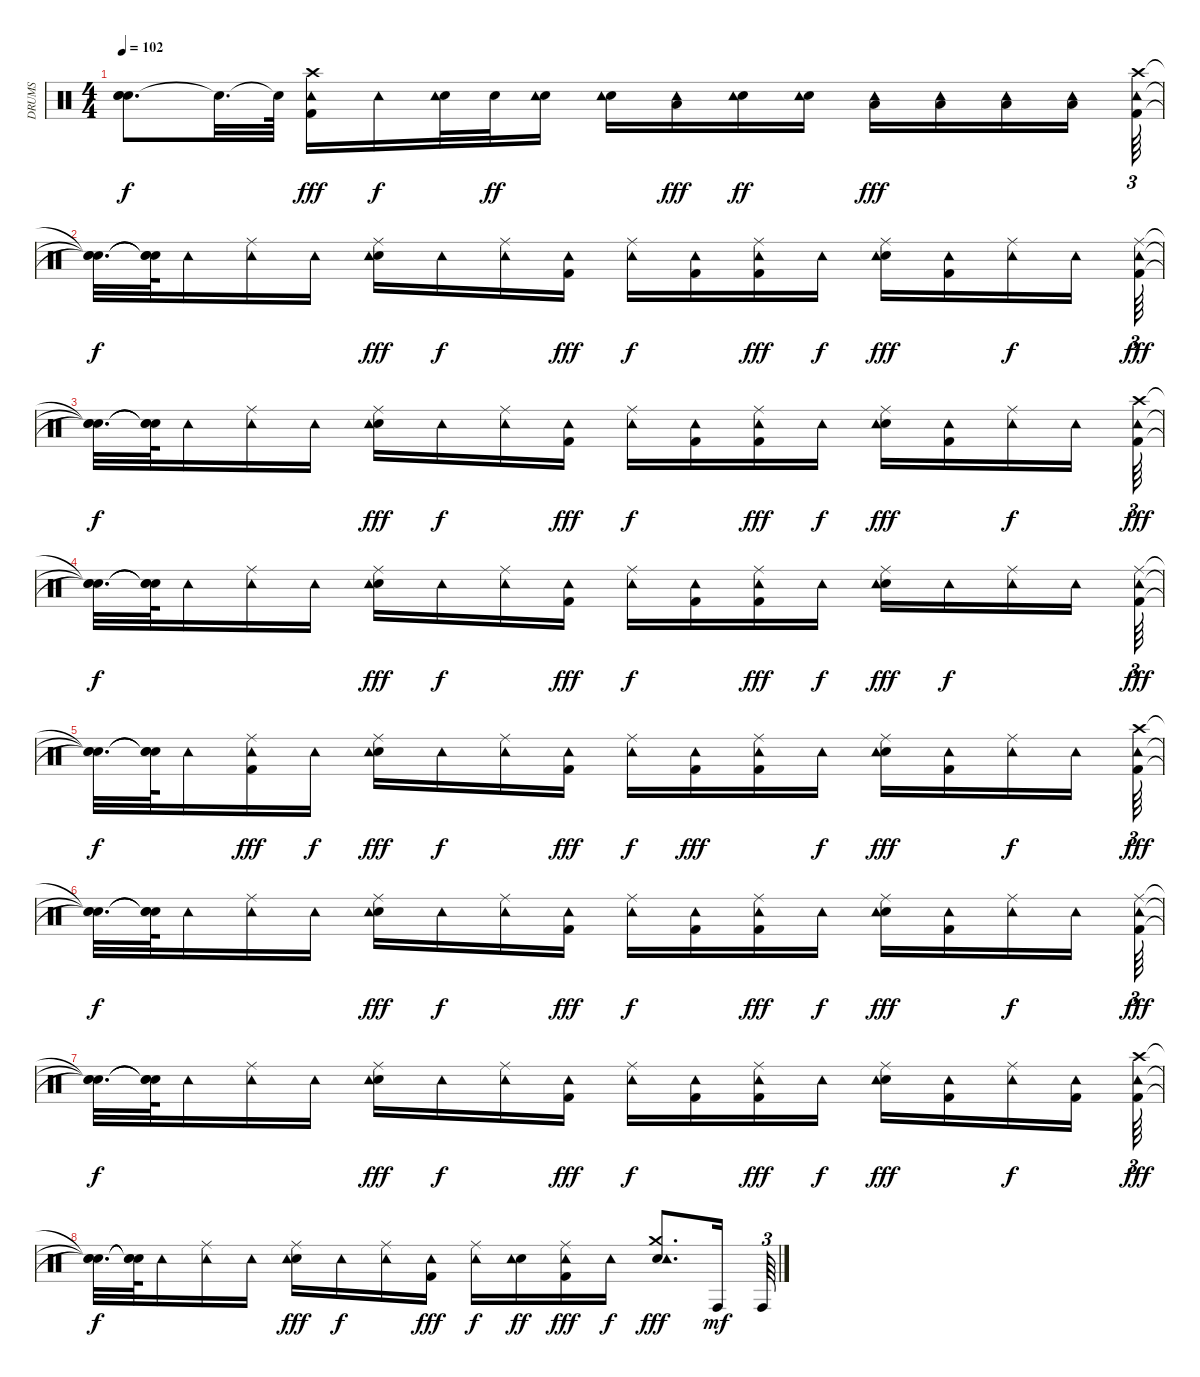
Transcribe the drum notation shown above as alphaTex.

\track ("DRUMS" "DRUMS") {instrument percussion}
\staff {score}
\articulation defaults
\ts (4 4)
\tempo 102
\clef neutral
\ks c
("Snare (hit)"{t} "Snare (hit)"{t} "Snare (hit)"{t}).8{d dy f} "Snare (hit)"{t}.32{d} "Snare (hit)"{t}.64 ("Crash high (hit)" "Kick (hit) 2" "Tambourine (hit)").16{dy fff volume 16} "Tambourine (hit)".16{dy f} ("Snare (hit) 2" "Tambourine (hit)").32 "Snare (hit) 2".32{dy ff} ("Snare (hit) 2" "Tambourine (hit)").16 ("Snare (hit) 2" "Tambourine (hit)").16 ("Low Tom (hit)" "Tambourine (hit)").16{dy fff} ("Snare (hit) 2" "Tambourine (hit)").16{dy ff} ("Snare (hit) 2" "Tambourine (hit)").16 ("Low Tom (hit)" "Tambourine (hit)").16{dy fff} ("Low Tom (hit)" "Tambourine (hit)").16 ("Low Floor Tom (hit)" "Tambourine (hit)").16 ("Low Floor Tom (hit)" "Tambourine (hit)").16 ("Kick (hit) 2" "Crash high (hit)" "Tambourine (hit)").64{tu (3 2)} |
("Snare (hit)"{t} "Snare (hit)"{t} "Snare (hit)"{t}).32{d dy f} ("Snare (hit)"{t} "Snare (hit)"{t} "Snare (hit)"{t}).64 "Tambourine (hit)".16 ("Ride (middle)" "Tambourine (hit)").16 "Tambourine (hit)".16 ("Snare (hit) 2" "Ride (middle)" "Tambourine (hit)").16{dy fff} "Tambourine (hit)".16{dy f} ("Ride (middle)" "Tambourine (hit)").16 ("Kick (hit) 2" "Tambourine (hit)").16{dy fff} ("Ride (middle)" "Tambourine (hit)").16{dy f} ("Kick (hit) 2" "Tambourine (hit)").16 ("Ride (middle)" "Kick (hit) 2" "Tambourine (hit)").16{dy fff} "Tambourine (hit)".16{dy f} ("Snare (hit) 2" "Ride (middle)" "Tambourine (hit)").16{dy fff} ("Kick (hit) 2" "Tambourine (hit)").16 ("Ride (middle)" "Tambourine (hit)").16{dy f} "Tambourine (hit)".16 ("Kick (hit) 2" "Ride (middle)" "Tambourine (hit)").64{tu (3 2) dy fff} |
("Snare (hit)"{t} "Snare (hit)"{t} "Snare (hit)"{t}).32{d dy f} ("Snare (hit)"{t} "Snare (hit)"{t} "Snare (hit)"{t}).64 "Tambourine (hit)".16 ("Ride (middle)" "Tambourine (hit)").16 "Tambourine (hit)".16 ("Snare (hit) 2" "Ride (middle)" "Tambourine (hit)").16{dy fff} "Tambourine (hit)".16{dy f} ("Ride (middle)" "Tambourine (hit)").16 ("Kick (hit) 2" "Tambourine (hit)").16{dy fff} ("Ride (middle)" "Tambourine (hit)").16{dy f} ("Kick (hit) 2" "Tambourine (hit)").16 ("Kick (hit) 2" "Ride (middle)" "Tambourine (hit)").16{dy fff} "Tambourine (hit)".16{dy f} ("Snare (hit) 2" "Ride (middle)" "Tambourine (hit)").16{dy fff} ("Kick (hit) 2" "Tambourine (hit)").16 ("Ride (middle)" "Tambourine (hit)").16{dy f} "Tambourine (hit)".16 ("Kick (hit) 2" "Crash high (hit)" "Tambourine (hit)").64{tu (3 2) dy fff} |
("Snare (hit)"{t} "Snare (hit)"{t} "Snare (hit)"{t}).32{d dy f} ("Snare (hit)"{t} "Snare (hit)"{t} "Snare (hit)"{t}).64 "Tambourine (hit)".16 ("Ride (middle)" "Tambourine (hit)").16 "Tambourine (hit)".16 ("Snare (hit) 2" "Ride (middle)" "Tambourine (hit)").16{dy fff} "Tambourine (hit)".16{dy f} ("Ride (middle)" "Tambourine (hit)").16 ("Kick (hit) 2" "Tambourine (hit)").16{dy fff} ("Ride (middle)" "Tambourine (hit)").16{dy f} ("Kick (hit) 2" "Tambourine (hit)").16 ("Ride (middle)" "Kick (hit) 2" "Tambourine (hit)").16{dy fff} "Tambourine (hit)".16{dy f} ("Snare (hit) 2" "Ride (middle)" "Tambourine (hit)").16{dy fff} "Tambourine (hit)".16{dy f} ("Ride (middle)" "Tambourine (hit)").16 "Tambourine (hit)".16 ("Kick (hit) 2" "Ride (middle)" "Tambourine (hit)").64{tu (3 2) dy fff} |
("Snare (hit)"{t} "Snare (hit)"{t} "Snare (hit)"{t}).32{d dy f} ("Snare (hit)"{t} "Snare (hit)"{t} "Snare (hit)"{t}).64 "Tambourine (hit)".16 ("Kick (hit) 2" "Ride (middle)" "Tambourine (hit)").16{dy fff} "Tambourine (hit)".16{dy f} ("Snare (hit) 2" "Ride (middle)" "Tambourine (hit)").16{dy fff} "Tambourine (hit)".16{dy f} ("Ride (middle)" "Tambourine (hit)").16 ("Kick (hit) 2" "Tambourine (hit)").16{dy fff} ("Ride (middle)" "Tambourine (hit)").16{dy f} ("Kick (hit) 2" "Tambourine (hit)").16{dy fff} ("Ride (middle)" "Kick (hit) 2" "Tambourine (hit)").16 "Tambourine (hit)".16{dy f} ("Snare (hit) 2" "Ride (middle)" "Tambourine (hit)").16{dy fff} ("Kick (hit) 2" "Tambourine (hit)").16 ("Ride (middle)" "Tambourine (hit)").16{dy f} "Tambourine (hit)".16 ("Kick (hit) 2" "Crash high (hit)" "Tambourine (hit)").64{tu (3 2) dy fff} |
("Snare (hit)"{t} "Snare (hit)"{t} "Snare (hit)"{t}).32{d dy f} ("Snare (hit)"{t} "Snare (hit)"{t} "Snare (hit)"{t}).64 "Tambourine (hit)".16 ("Ride (middle)" "Tambourine (hit)").16 "Tambourine (hit)".16 ("Snare (hit) 2" "Ride (middle)" "Tambourine (hit)").16{dy fff} "Tambourine (hit)".16{dy f} ("Ride (middle)" "Tambourine (hit)").16 ("Kick (hit) 2" "Tambourine (hit)").16{dy fff} ("Ride (middle)" "Tambourine (hit)").16{dy f} ("Kick (hit) 2" "Tambourine (hit)").16 ("Ride (middle)" "Kick (hit) 2" "Tambourine (hit)").16{dy fff} "Tambourine (hit)".16{dy f} ("Snare (hit) 2" "Ride (middle)" "Tambourine (hit)").16{dy fff} ("Kick (hit) 2" "Tambourine (hit)").16 ("Ride (middle)" "Tambourine (hit)").16{dy f} "Tambourine (hit)".16 ("Kick (hit) 2" "Ride (middle)" "Tambourine (hit)").64{tu (3 2) dy fff} |
("Snare (hit)"{t} "Snare (hit)"{t} "Snare (hit)"{t}).32{d dy f} ("Snare (hit)"{t} "Snare (hit)"{t} "Snare (hit)"{t}).64 "Tambourine (hit)".16 ("Ride (middle)" "Tambourine (hit)").16 "Tambourine (hit)".16 ("Snare (hit) 2" "Ride (middle)" "Tambourine (hit)").16{dy fff} "Tambourine (hit)".16{dy f} ("Ride (middle)" "Tambourine (hit)").16 ("Kick (hit) 2" "Tambourine (hit)").16{dy fff} ("Ride (middle)" "Tambourine (hit)").16{dy f} ("Kick (hit) 2" "Tambourine (hit)").16 ("Kick (hit) 2" "Ride (middle)" "Tambourine (hit)").16{dy fff} "Tambourine (hit)".16{dy f} ("Snare (hit) 2" "Ride (middle)" "Tambourine (hit)").16{dy fff} ("Kick (hit) 2" "Tambourine (hit)").16 ("Ride (middle)" "Tambourine (hit)").16{dy f} ("Kick (hit) 2" "Tambourine (hit)").16 ("Kick (hit) 2" "Crash high (hit)" "Tambourine (hit)").64{tu (3 2) dy fff} |
("Snare (hit)"{t} "Snare (hit)"{t} "Snare (hit)"{t}).32{d dy f} ("Snare (hit)"{t} "Snare (hit)"{t} "Snare (hit)"{t}).64 "Tambourine (hit)".16 ("Ride (middle)" "Tambourine (hit)").16 "Tambourine (hit)".16 ("Snare (hit) 2" "Ride (middle)" "Tambourine (hit)").16{dy fff} "Tambourine (hit)".16{dy f} ("Ride (middle)" "Tambourine (hit)").16 ("Kick (hit) 2" "Tambourine (hit)").16{dy fff} ("Ride (middle)" "Tambourine (hit)").16{dy f} ("Snare (hit) 2" "Tambourine (hit)").16{dy ff} ("Ride (middle)" "Kick (hit) 2" "Tambourine (hit)").16{dy fff} "Tambourine (hit)".16{dy f} ("Crash medium (hit)" "Snare (hit) 2" "Tambourine (hit)").8{d dy fff} "Conga high (hit)".16{dy mf} "Conga high (hit)".64{tu (3 2)}
